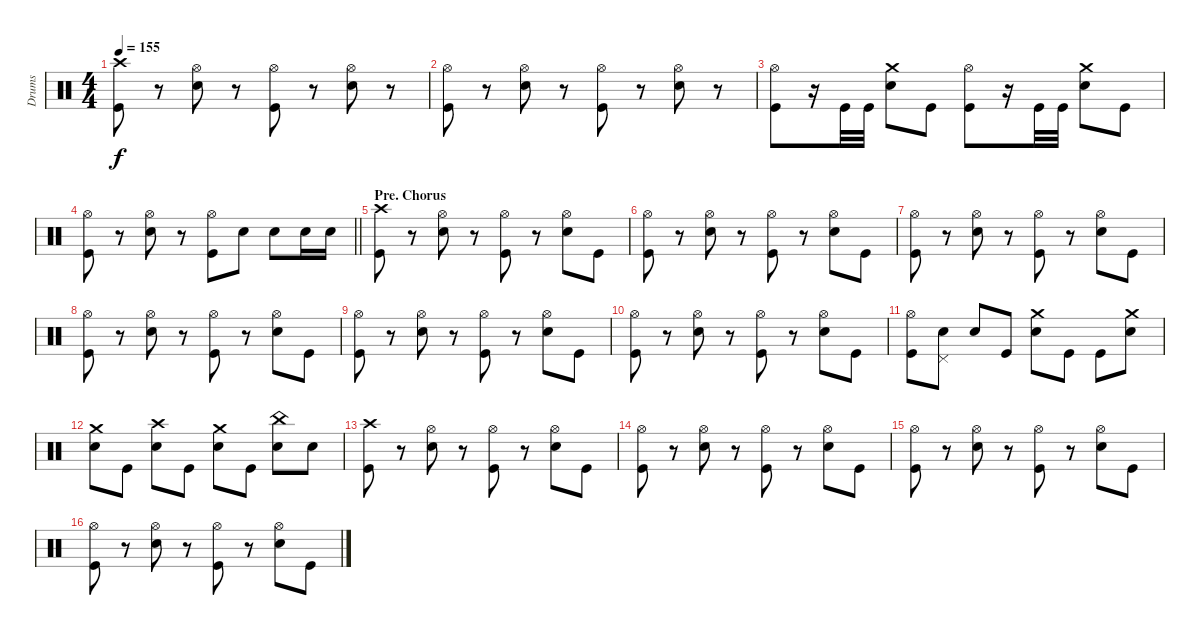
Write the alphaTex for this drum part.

\track ("Drums" "Drums") {instrument percussion}
\staff {score}
\articulation defaults
\ts (4 4)
\tempo 155
\clef neutral
\ks c
("Crash high (hit)" "Kick (hit)").8{dy f} r.8 ("Hi-Hat (open)" "Electric Snare (hit)").8 r.8 ("Hi-Hat (open)" "Kick (hit)").8 r.8 ("Hi-Hat (open)" "Electric Snare (hit)").8 r.8 |
("Hi-Hat (open)" "Kick (hit)").8 r.8 ("Hi-Hat (open)" "Electric Snare (hit)").8 r.8 ("Hi-Hat (open)" "Kick (hit)").8 r.8 ("Hi-Hat (open)" "Electric Snare (hit)").8 r.8 |
("Hi-Hat (open)" "Kick (hit)").8 r.16 "Kick (hit)".32 "Kick (hit)".32 ("Crash medium (hit)" "Electric Snare (hit)").8 "Kick (hit)".8 ("Hi-Hat (open)" "Kick (hit)").8 r.16 "Kick (hit)".32 "Kick (hit)".32 ("Crash medium (hit)" "Electric Snare (hit)").8 "Kick (hit)".8 |
\barLineRight lightlight
("Hi-Hat (open)" "Kick (hit)").8 r.8 ("Hi-Hat (open)" "Electric Snare (hit)").8 r.8 ("Hi-Hat (open)" "Kick (hit)").8 "Electric Snare (hit)".8 "Electric Snare (hit)".8 "Electric Snare (hit)".16 "Electric Snare (hit)".16 |
\section ("" "Pre. Chorus")
("Crash high (hit)" "Kick (hit)").8 r.8 ("Hi-Hat (open)" "Electric Snare (hit)").8 r.8 ("Hi-Hat (open)" "Kick (hit)").8 r.8 ("Hi-Hat (open)" "Electric Snare (hit)").8 "Kick (hit)".8 |
("Hi-Hat (open)" "Kick (hit)").8 r.8 ("Hi-Hat (open)" "Electric Snare (hit)").8 r.8 ("Hi-Hat (open)" "Kick (hit)").8 r.8 ("Hi-Hat (open)" "Electric Snare (hit)").8 "Kick (hit)".8 |
("Hi-Hat (open)" "Kick (hit)").8 r.8 ("Hi-Hat (open)" "Electric Snare (hit)").8 r.8 ("Hi-Hat (open)" "Kick (hit)").8 r.8 ("Hi-Hat (open)" "Electric Snare (hit)").8 "Kick (hit)".8 |
("Hi-Hat (open)" "Kick (hit)").8 r.8 ("Hi-Hat (open)" "Electric Snare (hit)").8 r.8 ("Hi-Hat (open)" "Kick (hit)").8 r.8 ("Hi-Hat (open)" "Electric Snare (hit)").8 "Kick (hit)".8 |
("Hi-Hat (open)" "Kick (hit)").8 r.8 ("Hi-Hat (open)" "Electric Snare (hit)").8 r.8 ("Hi-Hat (open)" "Kick (hit)").8 r.8 ("Hi-Hat (open)" "Electric Snare (hit)").8 "Kick (hit)".8 |
("Hi-Hat (open)" "Kick (hit)").8 r.8 ("Hi-Hat (open)" "Electric Snare (hit)").8 r.8 ("Hi-Hat (open)" "Kick (hit)").8 r.8 ("Hi-Hat (open)" "Electric Snare (hit)").8 "Kick (hit)".8 |
("Hi-Hat (open)" "Kick (hit)").8 ("Pedal Hi-Hat (hit)" "Electric Snare (hit)").8 "Electric Snare (hit)".8 "Kick (hit)".8 ("Crash medium (hit)" "Electric Snare (hit)").8 "Kick (hit)".8 "Kick (hit)".8 ("Crash medium (hit)" "Electric Snare (hit)").8 |
("Crash medium (hit)" "Electric Snare (hit)").8 "Kick (hit)".8 ("Crash high (hit)" "Electric Snare (hit)").8 "Kick (hit)".8 ("Crash medium (hit)" "Electric Snare (hit)").8 "Kick (hit)".8 ("China (hit)" "Electric Snare (hit)").8 "Electric Snare (hit)".8 |
("Crash high (hit)" "Kick (hit)").8 r.8 ("Hi-Hat (open)" "Electric Snare (hit)").8 r.8 ("Hi-Hat (open)" "Kick (hit)").8 r.8 ("Hi-Hat (open)" "Electric Snare (hit)").8 "Kick (hit)".8 |
("Hi-Hat (open)" "Kick (hit)").8 r.8 ("Hi-Hat (open)" "Electric Snare (hit)").8 r.8 ("Hi-Hat (open)" "Kick (hit)").8 r.8 ("Hi-Hat (open)" "Electric Snare (hit)").8 "Kick (hit)".8 |
("Hi-Hat (open)" "Kick (hit)").8 r.8 ("Hi-Hat (open)" "Electric Snare (hit)").8 r.8 ("Hi-Hat (open)" "Kick (hit)").8 r.8 ("Hi-Hat (open)" "Electric Snare (hit)").8 "Kick (hit)".8 |
("Hi-Hat (open)" "Kick (hit)").8 r.8 ("Hi-Hat (open)" "Electric Snare (hit)").8 r.8 ("Hi-Hat (open)" "Kick (hit)").8 r.8 ("Hi-Hat (open)" "Electric Snare (hit)").8 "Kick (hit)".8
